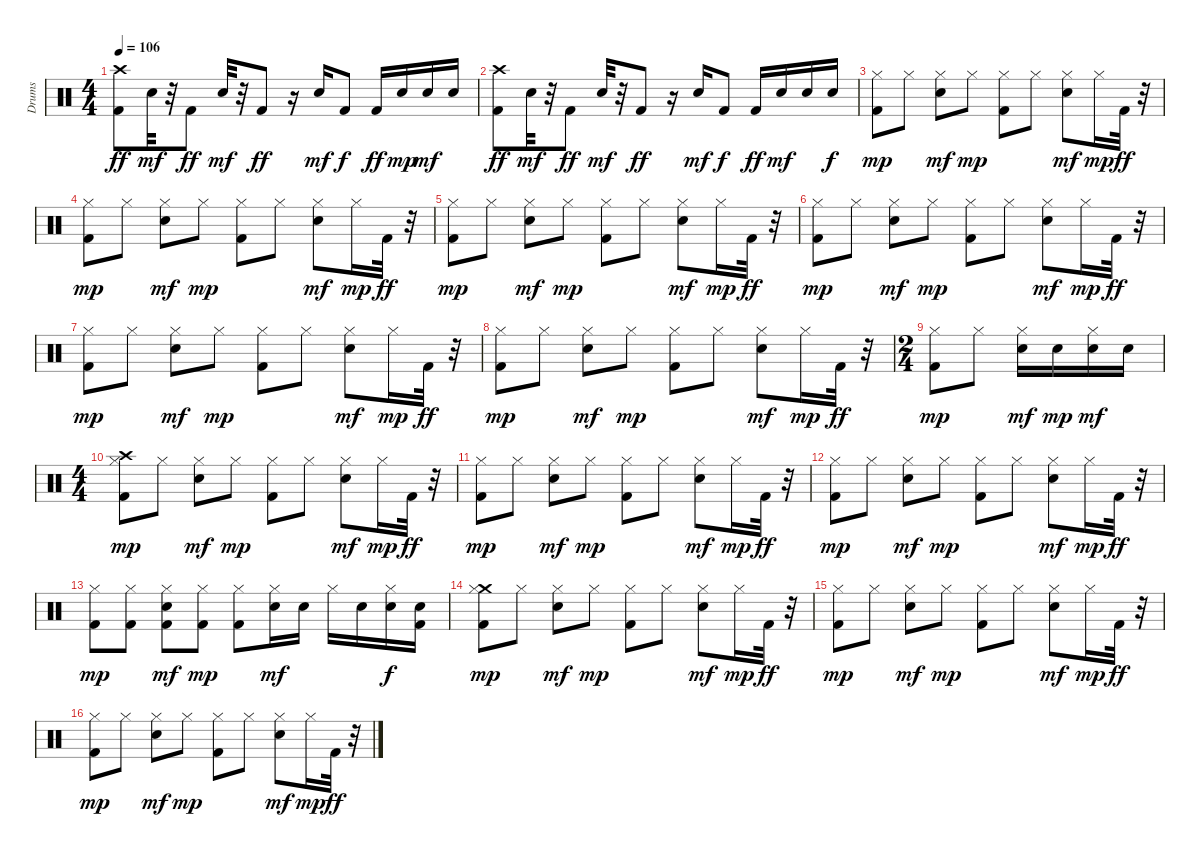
\track ("Drums" "Drums") {instrument percussion}
\staff {score}
\articulation defaults
\ts (4 4)
\tempo 106
\clef neutral
\ks c
("Crash high (hit)" "Kick (hit) 2").8{dy ff} "Snare (hit) 2".32{dy mf} r.32 "Kick (hit) 2".8{dy ff} "Snare (hit) 2".32{dy mf} r.32 "Kick (hit) 2".8{dy ff} r.16 "Snare (hit) 2".16{dy mf} "Kick (hit) 2".8{dy f} "Kick (hit) 2".16{dy ff} "Snare (hit) 2".16{dy mp} "Snare (hit) 2".16{dy mf} "Snare (hit) 2".16 |
("Crash high (hit)" "Kick (hit) 2").8{dy ff} "Snare (hit) 2".32{dy mf} r.32 "Kick (hit) 2".8{dy ff} "Snare (hit) 2".32{dy mf} r.32 "Kick (hit) 2".8{dy ff} r.16 "Snare (hit) 2".16{dy mf} "Kick (hit) 2".8{dy f} "Kick (hit) 2".16{dy ff} "Snare (hit) 2".16{dy mf} "Snare (hit) 2".16 "Snare (hit) 2".16{dy f} |
("Kick (hit) 2" "Hi-Hat (closed)").8{dy mp} "Hi-Hat (closed)".8 ("Hi-Hat (closed)" "Snare (hit) 2").8{dy mf} "Hi-Hat (closed)".8{dy mp} ("Hi-Hat (closed)" "Kick (hit) 2").8 "Hi-Hat (closed)".8 ("Hi-Hat (closed)" "Snare (hit) 2").8{dy mf} "Hi-Hat (closed)".16{dy mp} "Kick (hit) 2".32{dy ff} r.32 |
("Kick (hit) 2" "Hi-Hat (closed)").8{dy mp} "Hi-Hat (closed)".8 ("Hi-Hat (closed)" "Snare (hit) 2").8{dy mf} "Hi-Hat (closed)".8{dy mp} ("Hi-Hat (closed)" "Kick (hit) 2").8 "Hi-Hat (closed)".8 ("Hi-Hat (closed)" "Snare (hit) 2").8{dy mf} "Hi-Hat (closed)".16{dy mp} "Kick (hit) 2".32{dy ff} r.32 |
("Kick (hit) 2" "Hi-Hat (closed)").8{dy mp} "Hi-Hat (closed)".8 ("Hi-Hat (closed)" "Snare (hit) 2").8{dy mf} "Hi-Hat (closed)".8{dy mp} ("Hi-Hat (closed)" "Kick (hit) 2").8 "Hi-Hat (closed)".8 ("Hi-Hat (closed)" "Snare (hit) 2").8{dy mf} "Hi-Hat (closed)".16{dy mp} "Kick (hit) 2".32{dy ff} r.32 |
("Kick (hit) 2" "Hi-Hat (closed)").8{dy mp} "Hi-Hat (closed)".8 ("Hi-Hat (closed)" "Snare (hit) 2").8{dy mf} "Hi-Hat (closed)".8{dy mp} ("Hi-Hat (closed)" "Kick (hit) 2").8 "Hi-Hat (closed)".8 ("Hi-Hat (closed)" "Snare (hit) 2").8{dy mf} "Hi-Hat (closed)".16{dy mp} "Kick (hit) 2".32{dy ff} r.32 |
("Kick (hit) 2" "Hi-Hat (closed)").8{dy mp} "Hi-Hat (closed)".8 ("Hi-Hat (closed)" "Snare (hit) 2").8{dy mf} "Hi-Hat (closed)".8{dy mp} ("Hi-Hat (closed)" "Kick (hit) 2").8 "Hi-Hat (closed)".8 ("Hi-Hat (closed)" "Snare (hit) 2").8{dy mf} "Hi-Hat (closed)".16{dy mp} "Kick (hit) 2".32{dy ff} r.32 |
("Kick (hit) 2" "Hi-Hat (closed)").8{dy mp} "Hi-Hat (closed)".8 ("Hi-Hat (closed)" "Snare (hit) 2").8{dy mf} "Hi-Hat (closed)".8{dy mp} ("Hi-Hat (closed)" "Kick (hit) 2").8 "Hi-Hat (closed)".8 ("Hi-Hat (closed)" "Snare (hit) 2").8{dy mf} "Hi-Hat (closed)".16{dy mp} "Kick (hit) 2".32{dy ff} r.32 |
\ts (2 4)
("Kick (hit) 2" "Hi-Hat (closed)").8{dy mp} "Hi-Hat (closed)".8 ("Hi-Hat (closed)" "Snare (hit) 2").16{dy mf} "Snare (hit) 2".16{dy mp} ("Snare (hit) 2" "Hi-Hat (closed)").16{dy mf} "Snare (hit) 2".16 |
\ts (4 4)
("Crash high (hit)" "Kick (hit) 2" "Hi-Hat (closed)").8{dy mp} "Hi-Hat (closed)".8 ("Hi-Hat (closed)" "Snare (hit) 2").8{dy mf} "Hi-Hat (closed)".8{dy mp} ("Hi-Hat (closed)" "Kick (hit) 2").8 "Hi-Hat (closed)".8 ("Hi-Hat (closed)" "Snare (hit) 2").8{dy mf} "Hi-Hat (closed)".16{dy mp} "Kick (hit) 2".32{dy ff} r.32 |
("Kick (hit) 2" "Hi-Hat (closed)").8{dy mp} "Hi-Hat (closed)".8 ("Hi-Hat (closed)" "Snare (hit) 2").8{dy mf} "Hi-Hat (closed)".8{dy mp} ("Hi-Hat (closed)" "Kick (hit) 2").8 "Hi-Hat (closed)".8 ("Hi-Hat (closed)" "Snare (hit) 2").8{dy mf} "Hi-Hat (closed)".16{dy mp} "Kick (hit) 2".32{dy ff} r.32 |
("Kick (hit) 2" "Hi-Hat (closed)").8{dy mp} "Hi-Hat (closed)".8 ("Hi-Hat (closed)" "Snare (hit) 2").8{dy mf} "Hi-Hat (closed)".8{dy mp} ("Hi-Hat (closed)" "Kick (hit) 2").8 "Hi-Hat (closed)".8 ("Hi-Hat (closed)" "Snare (hit) 2").8{dy mf} "Hi-Hat (closed)".16{dy mp} "Kick (hit) 2".32{dy ff} r.32 |
("Kick (hit) 2" "Hi-Hat (closed)").8{dy mp} ("Kick (hit) 2" "Hi-Hat (closed)").8 ("Kick (hit) 2" "Hi-Hat (closed)" "Snare (hit) 2").8{dy mf} ("Kick (hit) 2" "Hi-Hat (closed)").8{dy mp} ("Kick (hit) 2" "Hi-Hat (closed)").8 ("Hi-Hat (closed)" "Snare (hit) 2").16{dy mf} "Snare (hit) 2".16 "Hi-Hat (closed)".16 "Snare (hit) 2".16 ("Hi-Hat (closed)" "Snare (hit) 2").16{dy f} ("Snare (hit) 2" "Kick (hit) 2").16 |
("Crash medium (hit)" "Kick (hit) 2" "Hi-Hat (closed)").8{dy mp} "Hi-Hat (closed)".8 ("Hi-Hat (closed)" "Snare (hit) 2").8{dy mf} "Hi-Hat (closed)".8{dy mp} ("Hi-Hat (closed)" "Kick (hit) 2").8 "Hi-Hat (closed)".8 ("Hi-Hat (closed)" "Snare (hit) 2").8{dy mf} "Hi-Hat (closed)".16{dy mp} "Kick (hit) 2".32{dy ff} r.32 |
("Kick (hit) 2" "Hi-Hat (closed)").8{dy mp} "Hi-Hat (closed)".8 ("Hi-Hat (closed)" "Snare (hit) 2").8{dy mf} "Hi-Hat (closed)".8{dy mp} ("Hi-Hat (closed)" "Kick (hit) 2").8 "Hi-Hat (closed)".8 ("Hi-Hat (closed)" "Snare (hit) 2").8{dy mf} "Hi-Hat (closed)".16{dy mp} "Kick (hit) 2".32{dy ff} r.32 |
("Kick (hit) 2" "Hi-Hat (closed)").8{dy mp} "Hi-Hat (closed)".8 ("Hi-Hat (closed)" "Snare (hit) 2").8{dy mf} "Hi-Hat (closed)".8{dy mp} ("Hi-Hat (closed)" "Kick (hit) 2").8 "Hi-Hat (closed)".8 ("Hi-Hat (closed)" "Snare (hit) 2").8{dy mf} "Hi-Hat (closed)".16{dy mp} "Kick (hit) 2".32{dy ff} r.32
